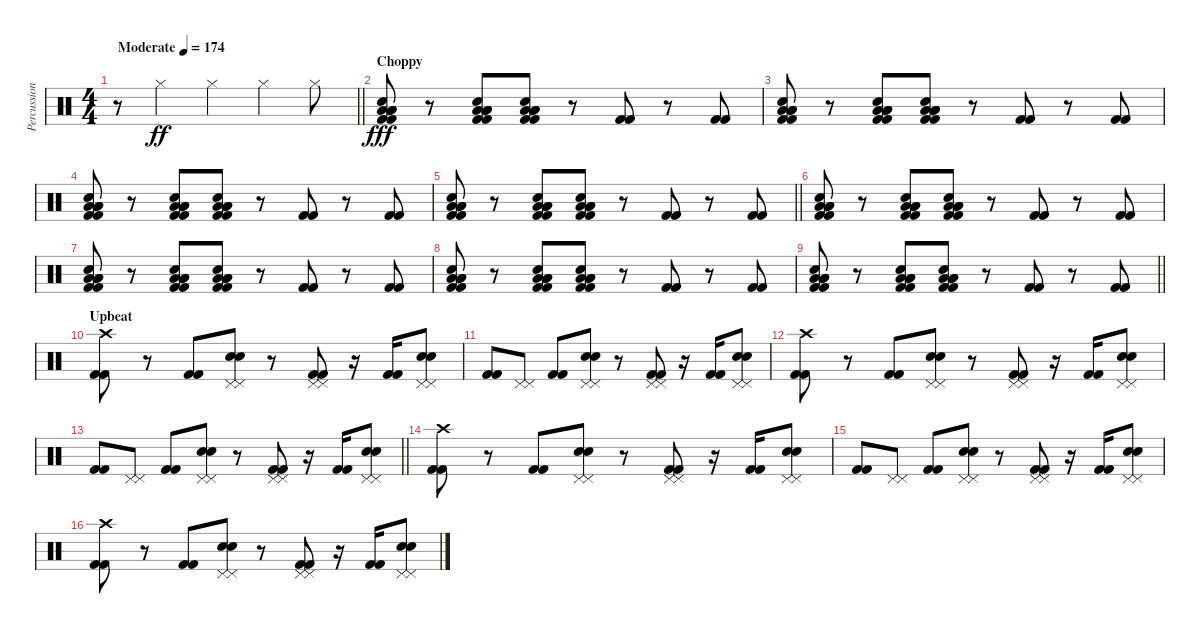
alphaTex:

\track ("Percussion" "Percussion") {instrument percussion}
\staff {score}
\articulation defaults
\ts (4 4)
\tempo (174 "Moderate")
\clef neutral
\barLineRight lightlight
\ks c
r.8{dy ff} "Hi-Hat (closed)".4 "Hi-Hat (closed)".4 "Hi-Hat (closed)".4 "Hi-Hat (closed)".8 |
\section ("" "Choppy")
("Low Floor Tom (hit)" "Low Floor Tom (hit)" "Low Floor Tom (hit)" "Electric Snare (hit)" "Kick (hit) 2" "Kick (hit) 2").8{dy fff} r.8 ("Low Floor Tom (hit)" "Low Floor Tom (hit)" "Low Floor Tom (hit)" "Electric Snare (hit)" "Kick (hit) 2" "Kick (hit) 2").8 ("Low Floor Tom (hit)" "Low Floor Tom (hit)" "Low Floor Tom (hit)" "Electric Snare (hit)" "Kick (hit) 2" "Kick (hit) 2").8 r.8 ("Kick (hit) 2" "Kick (hit) 2").8 r.8 ("Kick (hit) 2" "Kick (hit) 2").8 |
("Low Floor Tom (hit)" "Low Floor Tom (hit)" "Low Floor Tom (hit)" "Electric Snare (hit)" "Kick (hit) 2" "Kick (hit) 2").8 r.8 ("Low Floor Tom (hit)" "Low Floor Tom (hit)" "Low Floor Tom (hit)" "Electric Snare (hit)" "Kick (hit) 2" "Kick (hit) 2").8 ("Low Floor Tom (hit)" "Low Floor Tom (hit)" "Low Floor Tom (hit)" "Electric Snare (hit)" "Kick (hit) 2" "Kick (hit) 2").8 r.8 ("Kick (hit) 2" "Kick (hit) 2").8 r.8 ("Kick (hit) 2" "Kick (hit) 2").8 |
("Low Floor Tom (hit)" "Low Floor Tom (hit)" "Low Floor Tom (hit)" "Electric Snare (hit)" "Kick (hit) 2" "Kick (hit) 2").8 r.8 ("Low Floor Tom (hit)" "Low Floor Tom (hit)" "Low Floor Tom (hit)" "Electric Snare (hit)" "Kick (hit) 2" "Kick (hit) 2").8 ("Low Floor Tom (hit)" "Low Floor Tom (hit)" "Low Floor Tom (hit)" "Electric Snare (hit)" "Kick (hit) 2" "Kick (hit) 2").8 r.8 ("Kick (hit) 2" "Kick (hit) 2").8 r.8 ("Kick (hit) 2" "Kick (hit) 2").8 |
\barLineRight lightlight
("Low Floor Tom (hit)" "Low Floor Tom (hit)" "Low Floor Tom (hit)" "Electric Snare (hit)" "Kick (hit) 2" "Kick (hit) 2").8 r.8 ("Low Floor Tom (hit)" "Low Floor Tom (hit)" "Low Floor Tom (hit)" "Electric Snare (hit)" "Kick (hit) 2" "Kick (hit) 2").8 ("Low Floor Tom (hit)" "Low Floor Tom (hit)" "Low Floor Tom (hit)" "Electric Snare (hit)" "Kick (hit) 2" "Kick (hit) 2").8 r.8 ("Kick (hit) 2" "Kick (hit) 2").8 r.8 ("Kick (hit) 2" "Kick (hit) 2").8 |
("Low Floor Tom (hit)" "Low Floor Tom (hit)" "Low Floor Tom (hit)" "Electric Snare (hit)" "Kick (hit) 2" "Kick (hit) 2").8 r.8 ("Low Floor Tom (hit)" "Low Floor Tom (hit)" "Low Floor Tom (hit)" "Electric Snare (hit)" "Kick (hit) 2" "Kick (hit) 2").8 ("Low Floor Tom (hit)" "Low Floor Tom (hit)" "Low Floor Tom (hit)" "Electric Snare (hit)" "Kick (hit) 2" "Kick (hit) 2").8 r.8 ("Kick (hit) 2" "Kick (hit) 2").8 r.8 ("Kick (hit) 2" "Kick (hit) 2").8 |
("Low Floor Tom (hit)" "Low Floor Tom (hit)" "Low Floor Tom (hit)" "Electric Snare (hit)" "Kick (hit) 2" "Kick (hit) 2").8 r.8 ("Low Floor Tom (hit)" "Low Floor Tom (hit)" "Low Floor Tom (hit)" "Electric Snare (hit)" "Kick (hit) 2" "Kick (hit) 2").8 ("Low Floor Tom (hit)" "Low Floor Tom (hit)" "Low Floor Tom (hit)" "Electric Snare (hit)" "Kick (hit) 2" "Kick (hit) 2").8 r.8 ("Kick (hit) 2" "Kick (hit) 2").8 r.8 ("Kick (hit) 2" "Kick (hit) 2").8 |
("Low Floor Tom (hit)" "Low Floor Tom (hit)" "Low Floor Tom (hit)" "Electric Snare (hit)" "Kick (hit) 2" "Kick (hit) 2").8 r.8 ("Low Floor Tom (hit)" "Low Floor Tom (hit)" "Low Floor Tom (hit)" "Electric Snare (hit)" "Kick (hit) 2" "Kick (hit) 2").8 ("Low Floor Tom (hit)" "Low Floor Tom (hit)" "Low Floor Tom (hit)" "Electric Snare (hit)" "Kick (hit) 2" "Kick (hit) 2").8 r.8 ("Kick (hit) 2" "Kick (hit) 2").8 r.8 ("Kick (hit) 2" "Kick (hit) 2").8 |
\barLineRight lightlight
("Low Floor Tom (hit)" "Low Floor Tom (hit)" "Low Floor Tom (hit)" "Electric Snare (hit)" "Kick (hit) 2" "Kick (hit) 2").8 r.8 ("Low Floor Tom (hit)" "Low Floor Tom (hit)" "Low Floor Tom (hit)" "Electric Snare (hit)" "Kick (hit) 2" "Kick (hit) 2").8 ("Low Floor Tom (hit)" "Low Floor Tom (hit)" "Low Floor Tom (hit)" "Electric Snare (hit)" "Kick (hit) 2" "Kick (hit) 2").8 r.8 ("Kick (hit) 2" "Kick (hit) 2").8 r.8 ("Kick (hit) 2" "Kick (hit) 2").8 |
\section ("" "Upbeat")
("Crash high (hit)" "Kick (hit) 2" "Kick (hit) 2").8 r.8 ("Kick (hit) 2" "Kick (hit) 2").8 ("Pedal Hi-Hat (hit)" "Pedal Hi-Hat (hit)" "Electric Snare (hit)" "Electric Snare (hit)").8 r.8 ("Pedal Hi-Hat (hit)" "Pedal Hi-Hat (hit)" "Kick (hit) 2" "Kick (hit) 2").8 r.16 ("Kick (hit) 2" "Kick (hit) 2").16 ("Pedal Hi-Hat (hit)" "Pedal Hi-Hat (hit)" "Electric Snare (hit)" "Electric Snare (hit)").8 |
("Kick (hit) 2" "Kick (hit) 2").8 ("Pedal Hi-Hat (hit)" "Pedal Hi-Hat (hit)").8 ("Kick (hit) 2" "Kick (hit) 2").8 ("Pedal Hi-Hat (hit)" "Pedal Hi-Hat (hit)" "Electric Snare (hit)" "Electric Snare (hit)").8 r.8 ("Pedal Hi-Hat (hit)" "Pedal Hi-Hat (hit)" "Kick (hit) 2" "Kick (hit) 2").8 r.16 ("Kick (hit) 2" "Kick (hit) 2").16 ("Pedal Hi-Hat (hit)" "Pedal Hi-Hat (hit)" "Electric Snare (hit)" "Electric Snare (hit)").8 |
("Crash high (hit)" "Kick (hit) 2" "Kick (hit) 2").8 r.8 ("Kick (hit) 2" "Kick (hit) 2").8 ("Pedal Hi-Hat (hit)" "Pedal Hi-Hat (hit)" "Electric Snare (hit)" "Electric Snare (hit)").8 r.8 ("Pedal Hi-Hat (hit)" "Pedal Hi-Hat (hit)" "Kick (hit) 2" "Kick (hit) 2").8 r.16 ("Kick (hit) 2" "Kick (hit) 2").16 ("Pedal Hi-Hat (hit)" "Pedal Hi-Hat (hit)" "Electric Snare (hit)" "Electric Snare (hit)").8 |
\barLineRight lightlight
("Kick (hit) 2" "Kick (hit) 2").8 ("Pedal Hi-Hat (hit)" "Pedal Hi-Hat (hit)").8 ("Kick (hit) 2" "Kick (hit) 2").8 ("Pedal Hi-Hat (hit)" "Pedal Hi-Hat (hit)" "Electric Snare (hit)" "Electric Snare (hit)").8 r.8 ("Pedal Hi-Hat (hit)" "Pedal Hi-Hat (hit)" "Kick (hit) 2" "Kick (hit) 2").8 r.16 ("Kick (hit) 2" "Kick (hit) 2").16 ("Pedal Hi-Hat (hit)" "Pedal Hi-Hat (hit)" "Electric Snare (hit)" "Electric Snare (hit)").8 |
("Crash high (hit)" "Kick (hit) 2" "Kick (hit) 2").8 r.8 ("Kick (hit) 2" "Kick (hit) 2").8 ("Pedal Hi-Hat (hit)" "Pedal Hi-Hat (hit)" "Electric Snare (hit)" "Electric Snare (hit)").8 r.8 ("Pedal Hi-Hat (hit)" "Pedal Hi-Hat (hit)" "Kick (hit) 2" "Kick (hit) 2").8 r.16 ("Kick (hit) 2" "Kick (hit) 2").16 ("Pedal Hi-Hat (hit)" "Pedal Hi-Hat (hit)" "Electric Snare (hit)" "Electric Snare (hit)").8 |
("Kick (hit) 2" "Kick (hit) 2").8 ("Pedal Hi-Hat (hit)" "Pedal Hi-Hat (hit)").8 ("Kick (hit) 2" "Kick (hit) 2").8 ("Pedal Hi-Hat (hit)" "Pedal Hi-Hat (hit)" "Electric Snare (hit)" "Electric Snare (hit)").8 r.8 ("Pedal Hi-Hat (hit)" "Pedal Hi-Hat (hit)" "Kick (hit) 2" "Kick (hit) 2").8 r.16 ("Kick (hit) 2" "Kick (hit) 2").16 ("Pedal Hi-Hat (hit)" "Pedal Hi-Hat (hit)" "Electric Snare (hit)" "Electric Snare (hit)").8 |
("Crash high (hit)" "Kick (hit) 2" "Kick (hit) 2").8 r.8 ("Kick (hit) 2" "Kick (hit) 2").8 ("Pedal Hi-Hat (hit)" "Pedal Hi-Hat (hit)" "Electric Snare (hit)" "Electric Snare (hit)").8 r.8 ("Pedal Hi-Hat (hit)" "Pedal Hi-Hat (hit)" "Kick (hit) 2" "Kick (hit) 2").8 r.16 ("Kick (hit) 2" "Kick (hit) 2").16 ("Pedal Hi-Hat (hit)" "Pedal Hi-Hat (hit)" "Electric Snare (hit)" "Electric Snare (hit)").8
